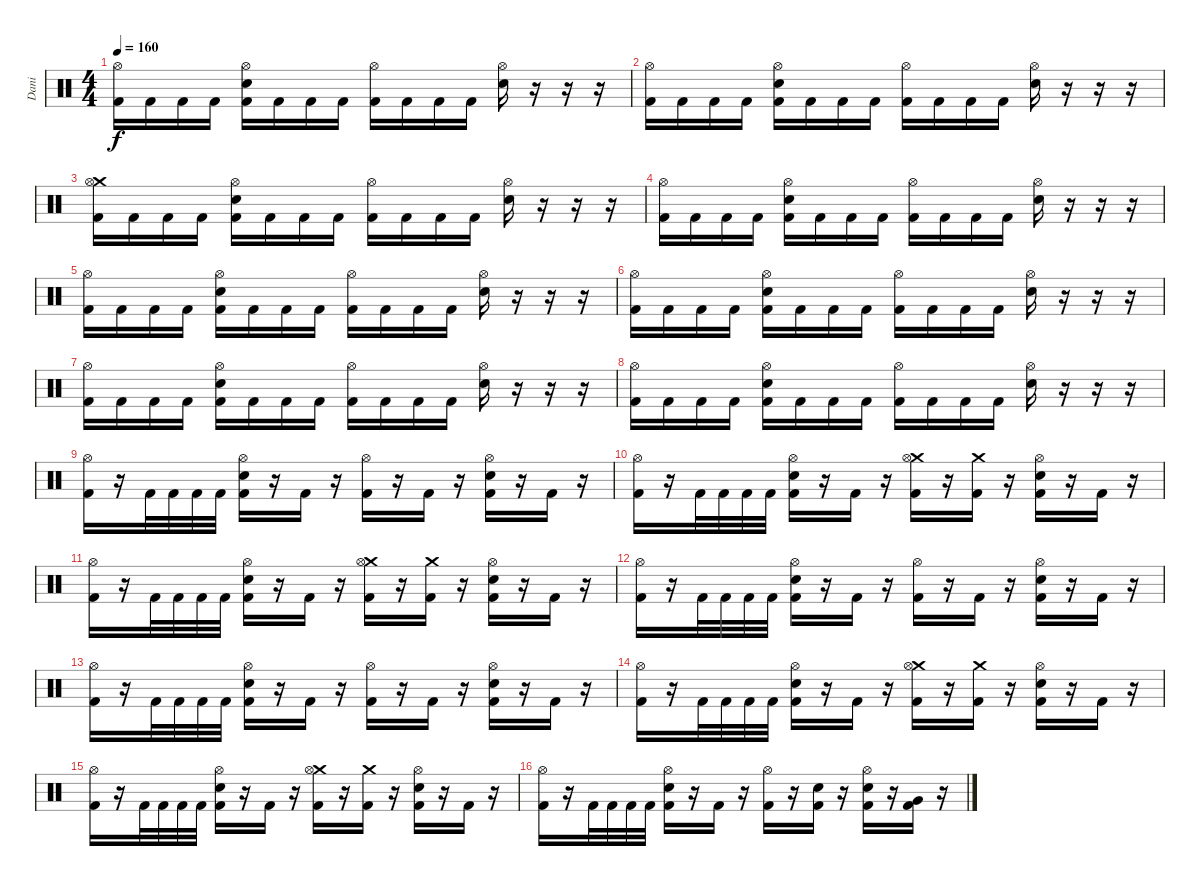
\track ("Dani" "Dani") {instrument percussion}
\staff {score}
\articulation defaults
\ts (4 4)
\tempo 160
\clef neutral
\ks c
("Hi-Hat (open)" "Kick (hit) 2").16{dy f} "Kick (hit) 2".16 "Kick (hit) 2".16 "Kick (hit) 2".16 ("Hi-Hat (open)" "Electric Snare (hit)" "Kick (hit) 2").16 "Kick (hit) 2".16 "Kick (hit) 2".16 "Kick (hit) 2".16 ("Hi-Hat (open)" "Kick (hit) 2").16 "Kick (hit) 2".16 "Kick (hit) 2".16 "Kick (hit) 2".16 ("Hi-Hat (open)" "Electric Snare (hit)").16 r.16 r.16 r.16 |
("Hi-Hat (open)" "Kick (hit) 2").16 "Kick (hit) 2".16 "Kick (hit) 2".16 "Kick (hit) 2".16 ("Hi-Hat (open)" "Electric Snare (hit)" "Kick (hit) 2").16 "Kick (hit) 2".16 "Kick (hit) 2".16 "Kick (hit) 2".16 ("Hi-Hat (open)" "Kick (hit) 2").16 "Kick (hit) 2".16 "Kick (hit) 2".16 "Kick (hit) 2".16 ("Hi-Hat (open)" "Electric Snare (hit)").16 r.16 r.16 r.16 |
("Crash medium (hit)" "Hi-Hat (open)" "Kick (hit) 2").16 "Kick (hit) 2".16 "Kick (hit) 2".16 "Kick (hit) 2".16 ("Hi-Hat (open)" "Electric Snare (hit)" "Kick (hit) 2").16 "Kick (hit) 2".16 "Kick (hit) 2".16 "Kick (hit) 2".16 ("Hi-Hat (open)" "Kick (hit) 2").16 "Kick (hit) 2".16 "Kick (hit) 2".16 "Kick (hit) 2".16 ("Hi-Hat (open)" "Electric Snare (hit)").16 r.16 r.16 r.16 |
("Hi-Hat (open)" "Kick (hit) 2").16 "Kick (hit) 2".16 "Kick (hit) 2".16 "Kick (hit) 2".16 ("Hi-Hat (open)" "Electric Snare (hit)" "Kick (hit) 2").16 "Kick (hit) 2".16 "Kick (hit) 2".16 "Kick (hit) 2".16 ("Hi-Hat (open)" "Kick (hit) 2").16 "Kick (hit) 2".16 "Kick (hit) 2".16 "Kick (hit) 2".16 ("Hi-Hat (open)" "Electric Snare (hit)").16 r.16 r.16 r.16 |
("Hi-Hat (open)" "Kick (hit) 2").16 "Kick (hit) 2".16 "Kick (hit) 2".16 "Kick (hit) 2".16 ("Hi-Hat (open)" "Electric Snare (hit)" "Kick (hit) 2").16 "Kick (hit) 2".16 "Kick (hit) 2".16 "Kick (hit) 2".16 ("Hi-Hat (open)" "Kick (hit) 2").16 "Kick (hit) 2".16 "Kick (hit) 2".16 "Kick (hit) 2".16 ("Hi-Hat (open)" "Electric Snare (hit)").16 r.16 r.16 r.16 |
("Hi-Hat (open)" "Kick (hit) 2").16 "Kick (hit) 2".16 "Kick (hit) 2".16 "Kick (hit) 2".16 ("Hi-Hat (open)" "Electric Snare (hit)" "Kick (hit) 2").16 "Kick (hit) 2".16 "Kick (hit) 2".16 "Kick (hit) 2".16 ("Hi-Hat (open)" "Kick (hit) 2").16 "Kick (hit) 2".16 "Kick (hit) 2".16 "Kick (hit) 2".16 ("Hi-Hat (open)" "Electric Snare (hit)").16 r.16 r.16 r.16 |
("Hi-Hat (open)" "Kick (hit) 2").16 "Kick (hit) 2".16 "Kick (hit) 2".16 "Kick (hit) 2".16 ("Hi-Hat (open)" "Electric Snare (hit)" "Kick (hit) 2").16 "Kick (hit) 2".16 "Kick (hit) 2".16 "Kick (hit) 2".16 ("Hi-Hat (open)" "Kick (hit) 2").16 "Kick (hit) 2".16 "Kick (hit) 2".16 "Kick (hit) 2".16 ("Hi-Hat (open)" "Electric Snare (hit)").16 r.16 r.16 r.16 |
("Hi-Hat (open)" "Kick (hit) 2").16 "Kick (hit) 2".16 "Kick (hit) 2".16 "Kick (hit) 2".16 ("Hi-Hat (open)" "Electric Snare (hit)" "Kick (hit) 2").16 "Kick (hit) 2".16 "Kick (hit) 2".16 "Kick (hit) 2".16 ("Hi-Hat (open)" "Kick (hit) 2").16 "Kick (hit) 2".16 "Kick (hit) 2".16 "Kick (hit) 2".16 ("Hi-Hat (open)" "Electric Snare (hit)").16 r.16 r.16 r.16 |
("Hi-Hat (open)" "Kick (hit) 2").16 r.16 "Kick (hit) 2".32 "Kick (hit) 2".32 "Kick (hit) 2".32 "Kick (hit) 2".32 ("Hi-Hat (open)" "Electric Snare (hit)" "Kick (hit) 2").16 r.16 "Kick (hit) 2".16 r.16 ("Hi-Hat (open)" "Kick (hit) 2").16 r.16 "Kick (hit) 2".16 r.16 ("Hi-Hat (open)" "Electric Snare (hit)" "Kick (hit) 2").16 r.16 "Kick (hit) 2".16 r.16 |
("Hi-Hat (open)" "Kick (hit) 2").16 r.16 "Kick (hit) 2".32 "Kick (hit) 2".32 "Kick (hit) 2".32 "Kick (hit) 2".32 ("Hi-Hat (open)" "Electric Snare (hit)" "Kick (hit) 2").16 r.16 "Kick (hit) 2".16 r.16 ("Crash medium (hit)" "Hi-Hat (open)" "Kick (hit) 2").16 r.16 ("Crash medium (hit)" "Kick (hit) 2").16 r.16 ("Hi-Hat (open)" "Electric Snare (hit)" "Kick (hit) 2").16 r.16 "Kick (hit) 2".16 r.16 |
("Hi-Hat (open)" "Kick (hit) 2").16 r.16 "Kick (hit) 2".32 "Kick (hit) 2".32 "Kick (hit) 2".32 "Kick (hit) 2".32 ("Hi-Hat (open)" "Electric Snare (hit)" "Kick (hit) 2").16 r.16 "Kick (hit) 2".16 r.16 ("Crash medium (hit)" "Hi-Hat (open)" "Kick (hit) 2").16 r.16 ("Crash medium (hit)" "Kick (hit) 2").16 r.16 ("Hi-Hat (open)" "Electric Snare (hit)" "Kick (hit) 2").16 r.16 "Kick (hit) 2".16 r.16 |
("Hi-Hat (open)" "Kick (hit) 2").16 r.16 "Kick (hit) 2".32 "Kick (hit) 2".32 "Kick (hit) 2".32 "Kick (hit) 2".32 ("Hi-Hat (open)" "Electric Snare (hit)" "Kick (hit) 2").16 r.16 "Kick (hit) 2".16 r.16 ("Hi-Hat (open)" "Kick (hit) 2").16 r.16 "Kick (hit) 2".16 r.16 ("Hi-Hat (open)" "Electric Snare (hit)" "Kick (hit) 2").16 r.16 "Kick (hit) 2".16 r.16 |
("Hi-Hat (open)" "Kick (hit) 2").16 r.16 "Kick (hit) 2".32 "Kick (hit) 2".32 "Kick (hit) 2".32 "Kick (hit) 2".32 ("Hi-Hat (open)" "Electric Snare (hit)" "Kick (hit) 2").16 r.16 "Kick (hit) 2".16 r.16 ("Hi-Hat (open)" "Kick (hit) 2").16 r.16 "Kick (hit) 2".16 r.16 ("Hi-Hat (open)" "Electric Snare (hit)" "Kick (hit) 2").16 r.16 "Kick (hit) 2".16 r.16 |
("Hi-Hat (open)" "Kick (hit) 2").16 r.16 "Kick (hit) 2".32 "Kick (hit) 2".32 "Kick (hit) 2".32 "Kick (hit) 2".32 ("Hi-Hat (open)" "Electric Snare (hit)" "Kick (hit) 2").16 r.16 "Kick (hit) 2".16 r.16 ("Crash medium (hit)" "Hi-Hat (open)" "Kick (hit) 2").16 r.16 ("Crash medium (hit)" "Kick (hit) 2").16 r.16 ("Hi-Hat (open)" "Electric Snare (hit)" "Kick (hit) 2").16 r.16 "Kick (hit) 2".16 r.16 |
("Hi-Hat (open)" "Kick (hit) 2").16 r.16 "Kick (hit) 2".32 "Kick (hit) 2".32 "Kick (hit) 2".32 "Kick (hit) 2".32 ("Hi-Hat (open)" "Electric Snare (hit)" "Kick (hit) 2").16 r.16 "Kick (hit) 2".16 r.16 ("Crash medium (hit)" "Hi-Hat (open)" "Kick (hit) 2").16 r.16 ("Crash medium (hit)" "Kick (hit) 2").16 r.16 ("Hi-Hat (open)" "Electric Snare (hit)" "Kick (hit) 2").16 r.16 "Kick (hit) 2".16 r.16 |
("Hi-Hat (open)" "Kick (hit) 2").16 r.16 "Kick (hit) 2".32 "Kick (hit) 2".32 "Kick (hit) 2".32 "Kick (hit) 2".32 ("Hi-Hat (open)" "Electric Snare (hit)" "Kick (hit) 2").16 r.16 "Kick (hit) 2".16 r.16 ("Hi-Hat (open)" "Kick (hit) 2").16 r.16 ("Electric Snare (hit)" "Kick (hit) 2").16 r.16 ("Hi-Hat (open)" "Electric Snare (hit)" "Kick (hit) 2").16 r.16 ("Very Low Tom (hit)" "Kick (hit) 2").16 r.16
